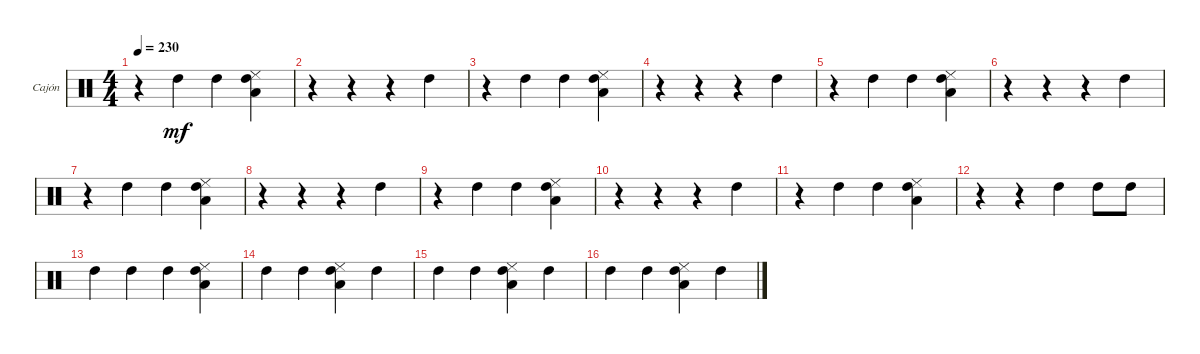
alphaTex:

\defaultSystemsLayout 4
\bracketExtendMode groupsimilarinstruments
\firstSystemTrackNameOrientation horizontal
\otherSystemsTrackNameOrientation horizontal
\track ("Cajón (Ira)" "Cajón") {instrument percussion}
\staff {score}
\articulation defaults
\ts (4 4)
\tempo 230
\clef neutral
\scale
0.333333
\ks c
r.4{dy mf} "High Tom (hit)".4 "High Tom (hit)".4 ("High Tom (hit)" "Low Tom (hit)" "Cowbell low (tip)").4 |
\scale
0.333333 r.4 r.4 r.4 "High Tom (hit)".4 |
\scale
0.333333 r.4 "High Tom (hit)".4 "High Tom (hit)".4 ("High Tom (hit)" "Low Tom (hit)" "Cowbell low (tip)").4 |
\scale
0.333333 r.4 r.4 r.4 "High Tom (hit)".4 |
\scale
0.333333 r.4 "High Tom (hit)".4 "High Tom (hit)".4 ("High Tom (hit)" "Low Tom (hit)" "Cowbell low (tip)").4 |
\scale
0.333333 r.4 r.4 r.4 "High Tom (hit)".4 |
\scale
0.333333 r.4 "High Tom (hit)".4 "High Tom (hit)".4 ("High Tom (hit)" "Low Tom (hit)" "Cowbell low (tip)").4 |
\scale
0.333333 r.4 r.4 r.4 "High Tom (hit)".4 |
\scale
0.333333 r.4 "High Tom (hit)".4 "High Tom (hit)".4 ("High Tom (hit)" "Low Tom (hit)" "Cowbell low (tip)").4 |
\scale
0.333333 r.4 r.4 r.4 "High Tom (hit)".4 |
\scale
0.333333 r.4 "High Tom (hit)".4 "High Tom (hit)".4 ("High Tom (hit)" "Low Tom (hit)" "Cowbell low (tip)").4 |
\scale
0.333333 r.4 r.4 "High Tom (hit)".4 "High Tom (hit)".8 "High Tom (hit)".8 |
\scale
0.333333 "High Tom (hit)".4 "High Tom (hit)".4 "High Tom (hit)".4 ("High Tom (hit)" "Low Tom (hit)" "Cowbell low (tip)").4 |
\scale
0.333333 "High Tom (hit)".4 "High Tom (hit)".4 ("Cowbell low (tip)" "High Tom (hit)" "Low Tom (hit)").4 "High Tom (hit)".4 |
\scale
0.333333 "High Tom (hit)".4 "High Tom (hit)".4 ("High Tom (hit)" "Cowbell low (tip)" "Low Tom (hit)").4 "High Tom (hit)".4 |
\scale
0.333333 "High Tom (hit)".4 "High Tom (hit)".4 ("High Tom (hit)" "Cowbell low (tip)" "Low Tom (hit)").4 "High Tom (hit)".4
